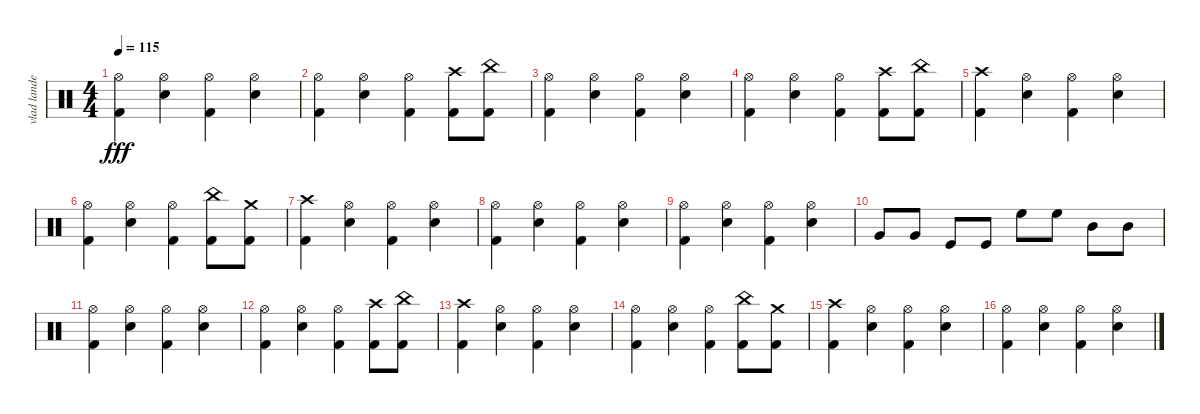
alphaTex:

\track ("vlad landeros" "vlad lande") {instrument percussion}
\staff {score}
\articulation defaults
\ts (4 4)
\tempo 115
\clef neutral
\ks c
("Hi-Hat (open)" "Kick (hit) 2").4{dy fff} ("Hi-Hat (open)" "Electric Snare (hit)").4 ("Hi-Hat (open)" "Kick (hit) 2").4 ("Hi-Hat (open)" "Electric Snare (hit)").4 |
("Hi-Hat (open)" "Kick (hit) 2").4 ("Hi-Hat (open)" "Electric Snare (hit)").4 ("Hi-Hat (open)" "Kick (hit) 2").4 ("Crash high (hit)" "Kick (hit) 2").8 ("China (hit)" "Kick (hit) 2").8 |
("Hi-Hat (open)" "Kick (hit) 2").4 ("Hi-Hat (open)" "Electric Snare (hit)").4 ("Hi-Hat (open)" "Kick (hit) 2").4 ("Hi-Hat (open)" "Electric Snare (hit)").4 |
("Hi-Hat (open)" "Kick (hit) 2").4 ("Hi-Hat (open)" "Electric Snare (hit)").4 ("Hi-Hat (open)" "Kick (hit) 2").4 ("Crash high (hit)" "Kick (hit) 2").8 ("China (hit)" "Kick (hit) 2").8 |
("Crash high (hit)" "Kick (hit) 2").4 ("Hi-Hat (open)" "Electric Snare (hit)").4 ("Hi-Hat (open)" "Kick (hit) 2").4 ("Hi-Hat (open)" "Electric Snare (hit)").4 |
("Hi-Hat (open)" "Kick (hit) 2").4 ("Hi-Hat (open)" "Electric Snare (hit)").4 ("Hi-Hat (open)" "Kick (hit) 2").4 ("China (hit)" "Kick (hit) 2").8 ("Crash medium (hit)" "Kick (hit) 2").8 |
("Crash high (hit)" "Kick (hit) 2").4 ("Hi-Hat (open)" "Electric Snare (hit)").4 ("Hi-Hat (open)" "Kick (hit) 2").4 ("Hi-Hat (open)" "Electric Snare (hit)").4 |
("Hi-Hat (open)" "Kick (hit) 2").4 ("Hi-Hat (open)" "Electric Snare (hit)").4 ("Hi-Hat (open)" "Kick (hit) 2").4 ("Hi-Hat (open)" "Electric Snare (hit)").4 |
("Hi-Hat (open)" "Kick (hit) 2").4 ("Hi-Hat (open)" "Electric Snare (hit)").4 ("Hi-Hat (open)" "Kick (hit) 2").4 ("Hi-Hat (open)" "Electric Snare (hit)").4 |
"Very Low Tom (hit)".8 "Very Low Tom (hit)".8 "Kick (hit)".8 "Kick (hit)".8 "High Floor Tom (hit)".8 "High Floor Tom (hit)".8 "Mid Tom (hit)".8 "Mid Tom (hit)".8 |
("Hi-Hat (open)" "Kick (hit) 2").4 ("Hi-Hat (open)" "Electric Snare (hit)").4 ("Hi-Hat (open)" "Kick (hit) 2").4 ("Hi-Hat (open)" "Electric Snare (hit)").4 |
("Hi-Hat (open)" "Kick (hit) 2").4 ("Hi-Hat (open)" "Electric Snare (hit)").4 ("Hi-Hat (open)" "Kick (hit) 2").4 ("Crash high (hit)" "Kick (hit) 2").8 ("China (hit)" "Kick (hit) 2").8 |
("Crash high (hit)" "Kick (hit) 2").4 ("Hi-Hat (open)" "Electric Snare (hit)").4 ("Hi-Hat (open)" "Kick (hit) 2").4 ("Hi-Hat (open)" "Electric Snare (hit)").4 |
("Hi-Hat (open)" "Kick (hit) 2").4 ("Hi-Hat (open)" "Electric Snare (hit)").4 ("Hi-Hat (open)" "Kick (hit) 2").4 ("China (hit)" "Kick (hit) 2").8 ("Crash medium (hit)" "Kick (hit) 2").8 |
("Crash high (hit)" "Kick (hit) 2").4 ("Hi-Hat (open)" "Electric Snare (hit)").4 ("Hi-Hat (open)" "Kick (hit) 2").4 ("Hi-Hat (open)" "Electric Snare (hit)").4 |
("Hi-Hat (open)" "Kick (hit) 2").4 ("Hi-Hat (open)" "Electric Snare (hit)").4 ("Hi-Hat (open)" "Kick (hit) 2").4 ("Hi-Hat (open)" "Electric Snare (hit)").4
